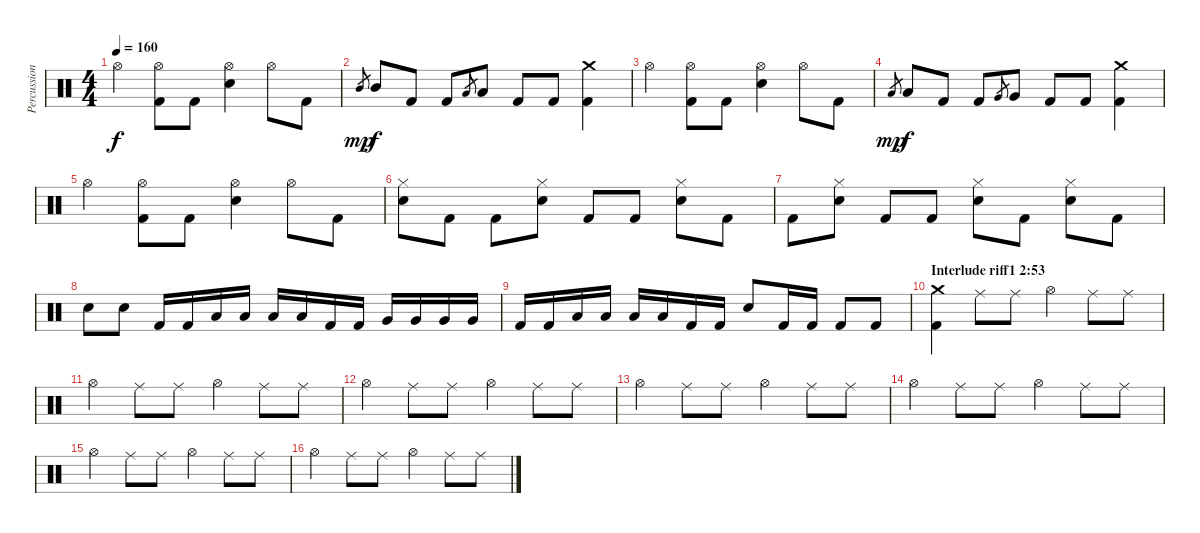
\track ("Percussion" "Percussion") {instrument percussion}
\staff {score}
\articulation defaults
\ts (4 4)
\tempo 160
\clef neutral
\ks c "Hi-Hat (open)".4{dy f}
("Hi-Hat (open)" "Kick (hit) 2").8 "Kick (hit) 2".8 ("Hi-Hat (open)" "Snare (hit) 2").4 "Hi-Hat (open)".8 "Kick (hit) 2".8 |
"Mid Tom (hit)".8{gr dy mp} "Mid Tom (hit)".8{dy f} "Kick (hit) 2".8 "Kick (hit) 2".8 "Low Tom (hit)".8{gr} "Low Tom (hit)".8 "Kick (hit) 2".8 "Kick (hit) 2".8 ("Crash medium (hit)" "Kick (hit) 2").4 |
"Hi-Hat (open)".4 ("Hi-Hat (open)" "Kick (hit) 2").8 "Kick (hit) 2".8 ("Hi-Hat (open)" "Snare (hit) 2").4 "Hi-Hat (open)".8 "Kick (hit) 2".8 |
"Low Tom (hit)".8{gr dy mp} "Low Tom (hit)".8{dy f} "Kick (hit) 2".8 "Kick (hit) 2".8 "Very Low Tom (hit)".8{gr} "Very Low Tom (hit)".8 "Kick (hit) 2".8 "Kick (hit) 2".8 ("Crash medium (hit)" "Kick (hit) 2").4 |
"Hi-Hat (open)".4 ("Hi-Hat (open)" "Kick (hit) 2").8 "Kick (hit) 2".8 ("Hi-Hat (open)" "Snare (hit) 2").4 "Hi-Hat (open)".8 "Kick (hit) 2".8 |
("Hi-Hat (closed)" "Snare (hit) 2").8 "Kick (hit) 2".8 "Kick (hit) 2".8 ("Hi-Hat (closed)" "Snare (hit) 2").8 "Kick (hit) 2".8 "Kick (hit) 2".8 ("Hi-Hat (closed)" "Snare (hit) 2").8 "Kick (hit) 2".8 |
"Kick (hit) 2".8 ("Hi-Hat (closed)" "Snare (hit) 2").8 "Kick (hit) 2".8 "Kick (hit) 2".8 ("Hi-Hat (closed)" "Snare (hit) 2").8 "Kick (hit) 2".8 ("Hi-Hat (closed)" "Snare (hit) 2").8 "Kick (hit) 2".8 |
"Snare (hit) 2".8 "Snare (hit) 2".8 "Kick (hit) 2".16 "Kick (hit) 2".16 "Low Tom (hit)".16 "Low Tom (hit)".16 "Low Tom (hit)".16 "Low Tom (hit)".16 "Kick (hit) 2".16 "Kick (hit) 2".16 "Very Low Tom (hit)".16 "Very Low Tom (hit)".16 "Very Low Tom (hit)".16 "Very Low Tom (hit)".16 |
"Kick (hit) 2".16 "Kick (hit) 2".16 "Low Floor Tom (hit)".16 "Low Floor Tom (hit)".16 "Low Floor Tom (hit)".16 "Low Floor Tom (hit)".16 "Kick (hit) 2".16 "Kick (hit) 2".16 "Snare (hit) 2".8 "Kick (hit) 2".16 "Kick (hit) 2".16 "Kick (hit) 2".8 "Kick (hit) 2".8 |
\section ("" "Interlude riff1 2:53")
("Crash medium (hit)" "Kick (hit) 2").4 "Ride (middle)".8{volume 6} "Ride (middle)".8 "Hi-Hat (open)".4 "Ride (middle)".8 "Ride (middle)".8 |
"Hi-Hat (open)".4 "Ride (middle)".8 "Ride (middle)".8 "Hi-Hat (open)".4 "Ride (middle)".8 "Ride (middle)".8 |
"Hi-Hat (open)".4 "Ride (middle)".8 "Ride (middle)".8 "Hi-Hat (open)".4 "Ride (middle)".8 "Ride (middle)".8 |
"Hi-Hat (open)".4 "Ride (middle)".8 "Ride (middle)".8 "Hi-Hat (open)".4 "Ride (middle)".8 "Ride (middle)".8 |
"Hi-Hat (open)".4 "Ride (middle)".8 "Ride (middle)".8 "Hi-Hat (open)".4 "Ride (middle)".8 "Ride (middle)".8 |
"Hi-Hat (open)".4 "Ride (middle)".8 "Ride (middle)".8 "Hi-Hat (open)".4 "Ride (middle)".8 "Ride (middle)".8 |
"Hi-Hat (open)".4 "Ride (middle)".8 "Ride (middle)".8 "Hi-Hat (open)".4 "Ride (middle)".8 "Ride (middle)".8
